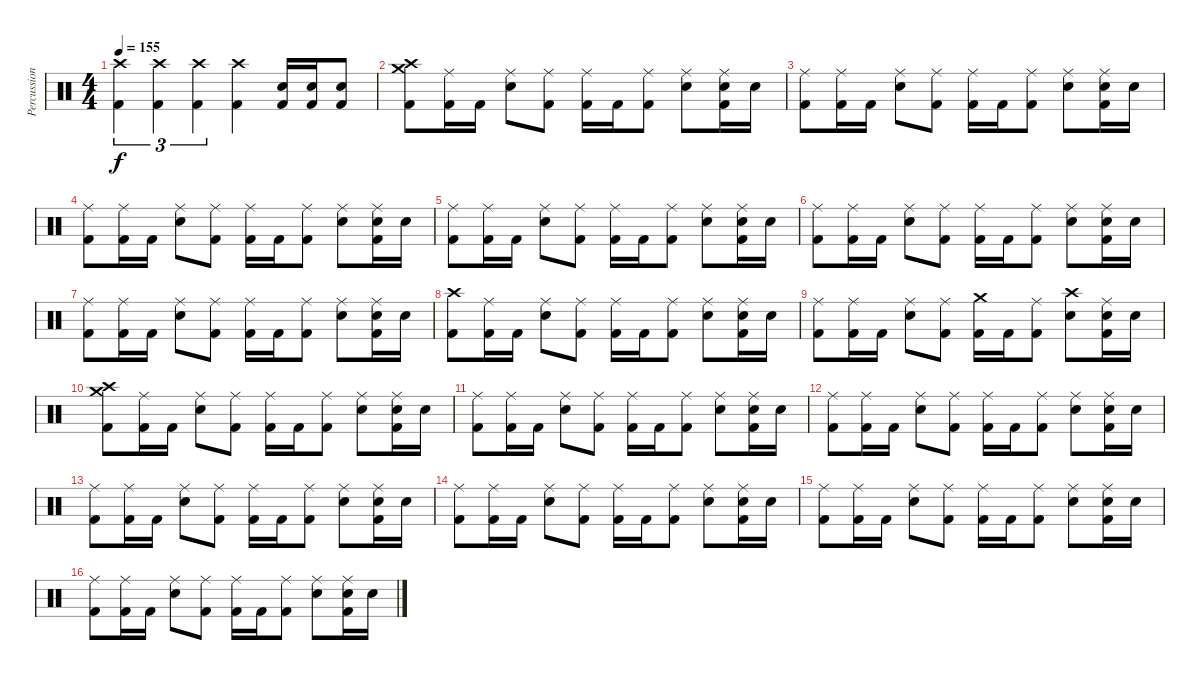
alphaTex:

\track ("Percussion" "Percussion") {instrument percussion}
\staff {score}
\articulation defaults
\ts (4 4)
\tempo 155
\clef neutral
\ks c
("Crash high (hit)" "Kick (hit) 2").4{tu (3 2) dy f} ("Crash high (hit)" "Kick (hit) 2").4{tu (3 2)} ("Crash high (hit)" "Kick (hit) 2").4{tu (3 2)} ("Crash high (hit)" "Kick (hit) 2").4 ("Electric Snare (hit)" "Kick (hit) 2").16 ("Electric Snare (hit)" "Kick (hit) 2").16 ("Electric Snare (hit)" "Kick (hit) 2").8 |
("Crash medium (hit)" "Crash high (hit)" "Kick (hit) 2").8 ("Ride (middle)" "Kick (hit) 2").16 "Kick (hit) 2".16 ("Ride (middle)" "Electric Snare (hit)").8 ("Ride (middle)" "Kick (hit) 2").8 ("Ride (middle)" "Kick (hit) 2").16 "Kick (hit) 2".16 ("Ride (middle)" "Kick (hit) 2").8 ("Ride (middle)" "Electric Snare (hit)").8 ("Ride (middle)" "Electric Snare (hit)" "Kick (hit) 2").16 "Electric Snare (hit)".16 |
("Ride (middle)" "Kick (hit) 2").8 ("Ride (middle)" "Kick (hit) 2").16 "Kick (hit) 2".16 ("Ride (middle)" "Electric Snare (hit)").8 ("Ride (middle)" "Kick (hit) 2").8 ("Ride (middle)" "Kick (hit) 2").16 "Kick (hit) 2".16 ("Ride (middle)" "Kick (hit) 2").8 ("Ride (middle)" "Electric Snare (hit)").8 ("Ride (middle)" "Electric Snare (hit)" "Kick (hit) 2").16 "Electric Snare (hit)".16 |
("Ride (middle)" "Kick (hit) 2").8 ("Ride (middle)" "Kick (hit) 2").16 "Kick (hit) 2".16 ("Ride (middle)" "Electric Snare (hit)").8 ("Ride (middle)" "Kick (hit) 2").8 ("Ride (middle)" "Kick (hit) 2").16 "Kick (hit) 2".16 ("Ride (middle)" "Kick (hit) 2").8 ("Ride (middle)" "Electric Snare (hit)").8 ("Ride (middle)" "Electric Snare (hit)" "Kick (hit) 2").16 "Electric Snare (hit)".16 |
("Ride (middle)" "Kick (hit) 2").8 ("Ride (middle)" "Kick (hit) 2").16 "Kick (hit) 2".16 ("Ride (middle)" "Electric Snare (hit)").8 ("Ride (middle)" "Kick (hit) 2").8 ("Ride (middle)" "Kick (hit) 2").16 "Kick (hit) 2".16 ("Ride (middle)" "Kick (hit) 2").8 ("Ride (middle)" "Electric Snare (hit)").8 ("Ride (middle)" "Electric Snare (hit)" "Kick (hit) 2").16 "Electric Snare (hit)".16 |
("Ride (middle)" "Kick (hit) 2").8 ("Ride (middle)" "Kick (hit) 2").16 "Kick (hit) 2".16 ("Ride (middle)" "Electric Snare (hit)").8 ("Ride (middle)" "Kick (hit) 2").8 ("Ride (middle)" "Kick (hit) 2").16 "Kick (hit) 2".16 ("Ride (middle)" "Kick (hit) 2").8 ("Ride (middle)" "Electric Snare (hit)").8 ("Ride (middle)" "Electric Snare (hit)" "Kick (hit) 2").16 "Electric Snare (hit)".16 |
("Ride (middle)" "Kick (hit) 2").8 ("Ride (middle)" "Kick (hit) 2").16 "Kick (hit) 2".16 ("Ride (middle)" "Electric Snare (hit)").8 ("Ride (middle)" "Kick (hit) 2").8 ("Ride (middle)" "Kick (hit) 2").16 "Kick (hit) 2".16 ("Ride (middle)" "Kick (hit) 2").8 ("Ride (middle)" "Electric Snare (hit)").8 ("Ride (middle)" "Electric Snare (hit)" "Kick (hit) 2").16 "Electric Snare (hit)".16 |
("Crash high (hit)" "Kick (hit) 2").8 ("Ride (middle)" "Kick (hit) 2").16 "Kick (hit) 2".16 ("Ride (middle)" "Electric Snare (hit)").8 ("Ride (middle)" "Kick (hit) 2").8 ("Ride (middle)" "Kick (hit) 2").16 "Kick (hit) 2".16 ("Ride (middle)" "Kick (hit) 2").8 ("Ride (middle)" "Electric Snare (hit)").8 ("Ride (middle)" "Electric Snare (hit)" "Kick (hit) 2").16 "Electric Snare (hit)".16 |
("Ride (middle)" "Kick (hit) 2").8 ("Ride (middle)" "Kick (hit) 2").16 "Kick (hit) 2".16 ("Ride (middle)" "Electric Snare (hit)").8 ("Ride (middle)" "Kick (hit) 2").8 ("Crash medium (hit)" "Kick (hit) 2").16 "Kick (hit) 2".16 ("Ride (middle)" "Kick (hit) 2").8 ("Crash high (hit)" "Electric Snare (hit)").8 ("Ride (middle)" "Electric Snare (hit)" "Kick (hit) 2").16 "Electric Snare (hit)".16 |
("Crash medium (hit)" "Crash high (hit)" "Kick (hit) 2").8 ("Ride (middle)" "Kick (hit) 2").16 "Kick (hit) 2".16 ("Ride (middle)" "Electric Snare (hit)").8 ("Ride (middle)" "Kick (hit) 2").8 ("Ride (middle)" "Kick (hit) 2").16 "Kick (hit) 2".16 ("Ride (middle)" "Kick (hit) 2").8 ("Ride (middle)" "Electric Snare (hit)").8 ("Ride (middle)" "Electric Snare (hit)" "Kick (hit) 2").16 "Electric Snare (hit)".16 |
("Ride (middle)" "Kick (hit) 2").8 ("Ride (middle)" "Kick (hit) 2").16 "Kick (hit) 2".16 ("Ride (middle)" "Electric Snare (hit)").8 ("Ride (middle)" "Kick (hit) 2").8 ("Ride (middle)" "Kick (hit) 2").16 "Kick (hit) 2".16 ("Ride (middle)" "Kick (hit) 2").8 ("Ride (middle)" "Electric Snare (hit)").8 ("Ride (middle)" "Electric Snare (hit)" "Kick (hit) 2").16 "Electric Snare (hit)".16 |
("Ride (middle)" "Kick (hit) 2").8 ("Ride (middle)" "Kick (hit) 2").16 "Kick (hit) 2".16 ("Ride (middle)" "Electric Snare (hit)").8 ("Ride (middle)" "Kick (hit) 2").8 ("Ride (middle)" "Kick (hit) 2").16 "Kick (hit) 2".16 ("Ride (middle)" "Kick (hit) 2").8 ("Ride (middle)" "Electric Snare (hit)").8 ("Ride (middle)" "Electric Snare (hit)" "Kick (hit) 2").16 "Electric Snare (hit)".16 |
("Ride (middle)" "Kick (hit) 2").8 ("Ride (middle)" "Kick (hit) 2").16 "Kick (hit) 2".16 ("Ride (middle)" "Electric Snare (hit)").8 ("Ride (middle)" "Kick (hit) 2").8 ("Ride (middle)" "Kick (hit) 2").16 "Kick (hit) 2".16 ("Ride (middle)" "Kick (hit) 2").8 ("Ride (middle)" "Electric Snare (hit)").8 ("Ride (middle)" "Electric Snare (hit)" "Kick (hit) 2").16 "Electric Snare (hit)".16 |
("Ride (middle)" "Kick (hit) 2").8 ("Ride (middle)" "Kick (hit) 2").16 "Kick (hit) 2".16 ("Ride (middle)" "Electric Snare (hit)").8 ("Ride (middle)" "Kick (hit) 2").8 ("Ride (middle)" "Kick (hit) 2").16 "Kick (hit) 2".16 ("Ride (middle)" "Kick (hit) 2").8 ("Ride (middle)" "Electric Snare (hit)").8 ("Ride (middle)" "Electric Snare (hit)" "Kick (hit) 2").16 "Electric Snare (hit)".16 |
("Ride (middle)" "Kick (hit) 2").8 ("Ride (middle)" "Kick (hit) 2").16 "Kick (hit) 2".16 ("Ride (middle)" "Electric Snare (hit)").8 ("Ride (middle)" "Kick (hit) 2").8 ("Ride (middle)" "Kick (hit) 2").16 "Kick (hit) 2".16 ("Ride (middle)" "Kick (hit) 2").8 ("Ride (middle)" "Electric Snare (hit)").8 ("Ride (middle)" "Electric Snare (hit)" "Kick (hit) 2").16 "Electric Snare (hit)".16 |
("Ride (middle)" "Kick (hit) 2").8 ("Ride (middle)" "Kick (hit) 2").16 "Kick (hit) 2".16 ("Ride (middle)" "Electric Snare (hit)").8 ("Ride (middle)" "Kick (hit) 2").8 ("Ride (middle)" "Kick (hit) 2").16 "Kick (hit) 2".16 ("Ride (middle)" "Kick (hit) 2").8 ("Ride (middle)" "Electric Snare (hit)").8 ("Ride (middle)" "Electric Snare (hit)" "Kick (hit) 2").16 "Electric Snare (hit)".16
